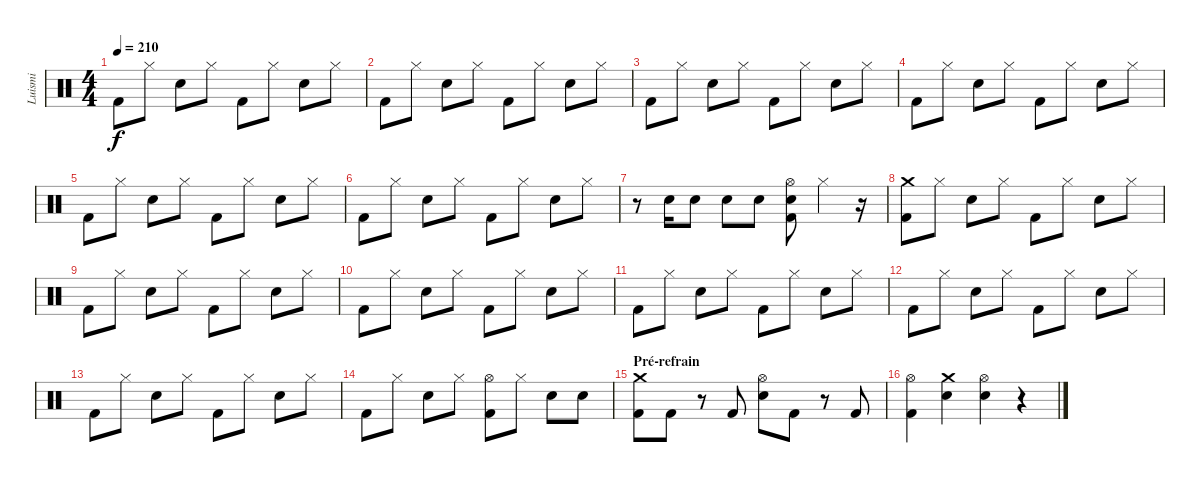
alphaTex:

\track ("Luismi" "Luismi") {instrument percussion}
\staff {score}
\articulation defaults
\ts (4 4)
\tempo 210
\clef neutral
\ks c "Kick (hit) 2".8{dy f} "Hi-Hat (closed)".8 "Snare (hit) 2".8 "Hi-Hat (closed)".8 "Kick (hit) 2".8 "Hi-Hat (closed)".8 "Snare (hit) 2".8 "Hi-Hat (closed)".8
|
"Kick (hit) 2".8 "Hi-Hat (closed)".8 "Snare (hit) 2".8 "Hi-Hat (closed)".8 "Kick (hit) 2".8 "Hi-Hat (closed)".8 "Snare (hit) 2".8 "Hi-Hat (closed)".8 |
"Kick (hit) 2".8 "Hi-Hat (closed)".8 "Snare (hit) 2".8 "Hi-Hat (closed)".8 "Kick (hit) 2".8 "Hi-Hat (closed)".8 "Snare (hit) 2".8 "Hi-Hat (closed)".8 |
"Kick (hit) 2".8 "Hi-Hat (closed)".8 "Snare (hit) 2".8 "Hi-Hat (closed)".8 "Kick (hit) 2".8 "Hi-Hat (closed)".8 "Snare (hit) 2".8 "Hi-Hat (closed)".8 |
"Kick (hit) 2".8 "Hi-Hat (closed)".8 "Snare (hit) 2".8 "Hi-Hat (closed)".8 "Kick (hit) 2".8 "Hi-Hat (closed)".8 "Snare (hit) 2".8 "Hi-Hat (closed)".8 |
"Kick (hit) 2".8 "Hi-Hat (closed)".8 "Snare (hit) 2".8 "Hi-Hat (closed)".8 "Kick (hit) 2".8 "Hi-Hat (closed)".8 "Snare (hit) 2".8 "Hi-Hat (closed)".8 |
r.8 "Snare (hit) 2".16 "Snare (hit) 2".8 "Snare (hit) 2".8 "Snare (hit) 2".8 ("Hi-Hat (open)" "Snare (hit) 2" "Kick (hit) 2").8 "Hi-Hat (closed)".4 r.16 |
("Crash medium (hit)" "Kick (hit) 2").8 "Hi-Hat (closed)".8 "Snare (hit) 2".8 "Hi-Hat (closed)".8 "Kick (hit) 2".8 "Hi-Hat (closed)".8 "Snare (hit) 2".8 "Hi-Hat (closed)".8 |
"Kick (hit) 2".8 "Hi-Hat (closed)".8 "Snare (hit) 2".8 "Hi-Hat (closed)".8 "Kick (hit) 2".8 "Hi-Hat (closed)".8 "Snare (hit) 2".8 "Hi-Hat (closed)".8 |
"Kick (hit) 2".8 "Hi-Hat (closed)".8 "Snare (hit) 2".8 "Hi-Hat (closed)".8 "Kick (hit) 2".8 "Hi-Hat (closed)".8 "Snare (hit) 2".8 "Hi-Hat (closed)".8 |
"Kick (hit) 2".8 "Hi-Hat (closed)".8 "Snare (hit) 2".8 "Hi-Hat (closed)".8 "Kick (hit) 2".8 "Hi-Hat (closed)".8 "Snare (hit) 2".8 "Hi-Hat (closed)".8 |
"Kick (hit) 2".8 "Hi-Hat (closed)".8 "Snare (hit) 2".8 "Hi-Hat (closed)".8 "Kick (hit) 2".8 "Hi-Hat (closed)".8 "Snare (hit) 2".8 "Hi-Hat (closed)".8 |
"Kick (hit) 2".8 "Hi-Hat (closed)".8 "Snare (hit) 2".8 "Hi-Hat (closed)".8 "Kick (hit) 2".8 "Hi-Hat (closed)".8 "Snare (hit) 2".8 "Hi-Hat (closed)".8 |
"Kick (hit) 2".8 "Hi-Hat (closed)".8 "Snare (hit) 2".8 "Hi-Hat (closed)".8 ("Hi-Hat (open)" "Kick (hit) 2").8 "Hi-Hat (closed)".8 "Snare (hit) 2".8 "Snare (hit) 2".8 |
\section ("" "Pré-refrain")
("Crash medium (hit)" "Kick (hit) 2").8 "Kick (hit) 2".8 r.8 "Kick (hit) 2".8 ("Hi-Hat (open)" "Snare (hit) 2").8 "Kick (hit) 2".8 r.8 "Kick (hit) 2".8 |
("Hi-Hat (open)" "Kick (hit) 2").4 ("Crash medium (hit)" "Snare (hit) 2").4 ("Hi-Hat (open)" "Snare (hit) 2").4 r.4
